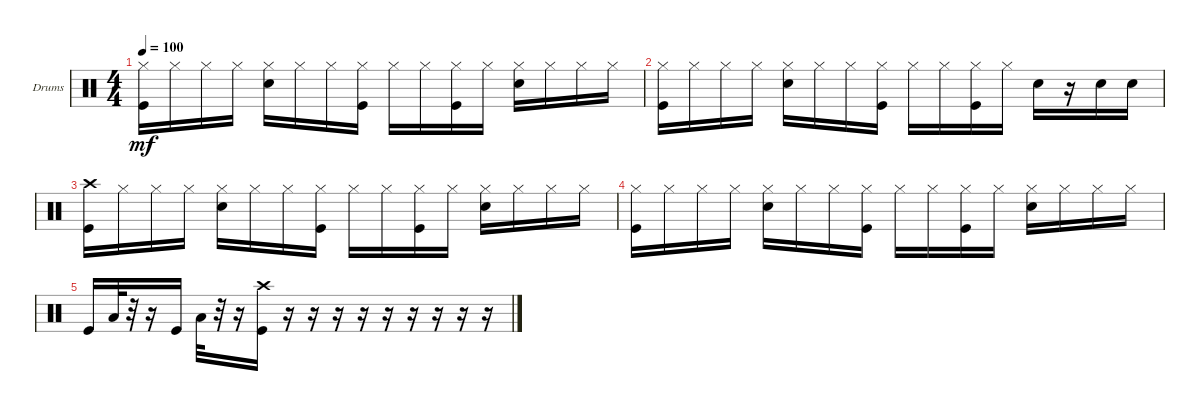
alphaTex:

\bracketExtendMode groupsimilarinstruments
\firstSystemTrackNameOrientation horizontal
\otherSystemsTrackNameOrientation horizontal
\track ("Drumkit" "Drums") {instrument percussion}
\staff {score}
\articulation defaults
\ts (4 4)
\tempo 100
\clef neutral
\ks c
("Kick (hit)" "Hi-Hat (closed)").16{dy mf} "Hi-Hat (closed)".16 "Hi-Hat (closed)".16 "Hi-Hat (closed)".16 ("Hi-Hat (closed)" "Snare (hit) 2").16 "Hi-Hat (closed)".16 "Hi-Hat (closed)".16 ("Hi-Hat (closed)" "Kick (hit)").16 "Hi-Hat (closed)".16 "Hi-Hat (closed)".16 ("Hi-Hat (closed)" "Kick (hit)").16 "Hi-Hat (closed)".16 ("Hi-Hat (closed)" "Snare (hit) 2").16 "Hi-Hat (closed)".16 "Hi-Hat (closed)".16 "Hi-Hat (closed)".16 |
("Kick (hit)" "Hi-Hat (closed)").16 "Hi-Hat (closed)".16 "Hi-Hat (closed)".16 "Hi-Hat (closed)".16 ("Hi-Hat (closed)" "Snare (hit) 2").16 "Hi-Hat (closed)".16 "Hi-Hat (closed)".16 ("Hi-Hat (closed)" "Kick (hit)").16 "Hi-Hat (closed)".16 "Hi-Hat (closed)".16 ("Hi-Hat (closed)" "Kick (hit)").16 "Hi-Hat (closed)".16 "Snare (hit) 2".16 r.16 "Snare (hit) 2".16 "Snare (hit) 2".16 |
("Kick (hit)" "Crash high (hit)").16 "Hi-Hat (closed)".16 "Hi-Hat (closed)".16 "Hi-Hat (closed)".16 ("Hi-Hat (closed)" "Snare (hit) 2").16 "Hi-Hat (closed)".16 "Hi-Hat (closed)".16 ("Hi-Hat (closed)" "Kick (hit)").16 "Hi-Hat (closed)".16 "Hi-Hat (closed)".16 ("Hi-Hat (closed)" "Kick (hit)").16 "Hi-Hat (closed)".16 ("Hi-Hat (closed)" "Snare (hit) 2").16 "Hi-Hat (closed)".16 "Hi-Hat (closed)".16 "Hi-Hat (closed)".16 |
("Kick (hit)" "Hi-Hat (closed)").16 "Hi-Hat (closed)".16 "Hi-Hat (closed)".16 "Hi-Hat (closed)".16 ("Hi-Hat (closed)" "Snare (hit) 2").16 "Hi-Hat (closed)".16 "Hi-Hat (closed)".16 ("Hi-Hat (closed)" "Kick (hit)").16 "Hi-Hat (closed)".16 "Hi-Hat (closed)".16 ("Hi-Hat (closed)" "Kick (hit)").16 "Hi-Hat (closed)".16 ("Hi-Hat (closed)" "Snare (hit) 2").16 "Hi-Hat (closed)".16 "Hi-Hat (closed)".16 "Hi-Hat (closed)".16 |
"Kick (hit)".16 "Low Tom (hit)".32 r.32 r.16 "Kick (hit)".16 "Low Tom (hit)".32 r.32 r.16 ("Kick (hit)" "Crash high (hit)").16 r.16 r.16 r.16 r.16 r.16 r.16 r.16 r.16 r.16
